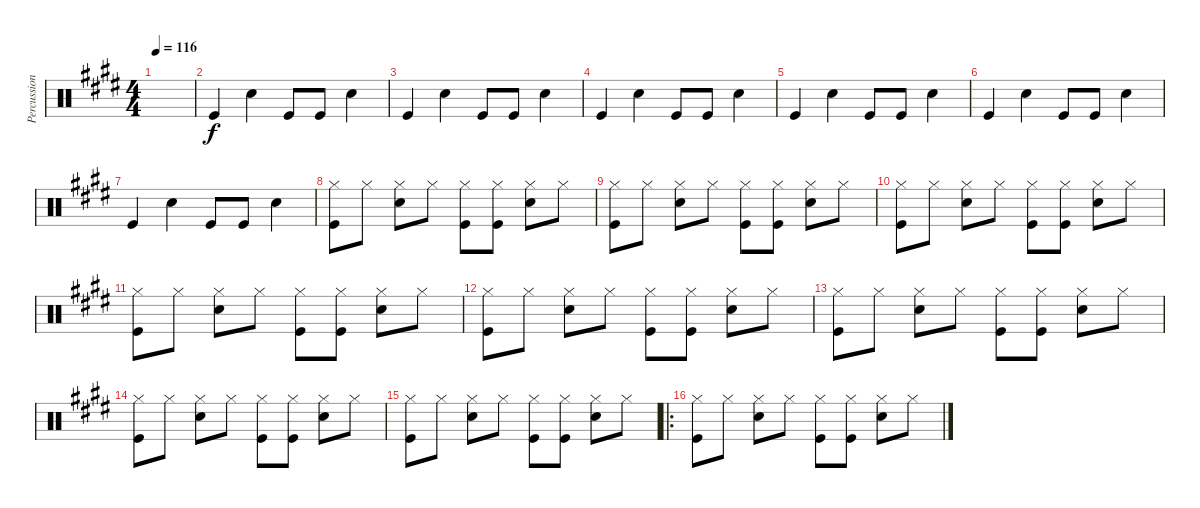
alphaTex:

\track ("Percussion" "Percussion") {instrument percussion}
\staff {score}
\articulation defaults
\ts (4 4)
\tempo 116
\clef neutral
\ks e
|
"Kick (hit)".4 "Snare (hit) 2".4 "Kick (hit)".8 "Kick (hit)".8 "Snare (hit) 2".4 |
"Kick (hit)".4 "Snare (hit) 2".4 "Kick (hit)".8 "Kick (hit)".8 "Snare (hit) 2".4 |
"Kick (hit)".4 "Snare (hit) 2".4 "Kick (hit)".8 "Kick (hit)".8 "Snare (hit) 2".4 |
"Kick (hit)".4 "Snare (hit) 2".4 "Kick (hit)".8 "Kick (hit)".8 "Snare (hit) 2".4 |
"Kick (hit)".4 "Snare (hit) 2".4 "Kick (hit)".8 "Kick (hit)".8 "Snare (hit) 2".4 |
"Kick (hit)".4 "Snare (hit) 2".4 "Kick (hit)".8 "Kick (hit)".8 "Snare (hit) 2".4 |
("Hi-Hat (closed)" "Kick (hit)").8 "Hi-Hat (closed)".8 ("Hi-Hat (closed)" "Snare (hit) 2").8 "Hi-Hat (closed)".8 ("Hi-Hat (closed)" "Kick (hit)").8 ("Hi-Hat (closed)" "Kick (hit)").8 ("Hi-Hat (closed)" "Snare (hit) 2").8 "Hi-Hat (closed)".8 |
("Hi-Hat (closed)" "Kick (hit)").8 "Hi-Hat (closed)".8 ("Hi-Hat (closed)" "Snare (hit) 2").8 "Hi-Hat (closed)".8 ("Hi-Hat (closed)" "Kick (hit)").8 ("Hi-Hat (closed)" "Kick (hit)").8 ("Hi-Hat (closed)" "Snare (hit) 2").8 "Hi-Hat (closed)".8 |
("Hi-Hat (closed)" "Kick (hit)").8 "Hi-Hat (closed)".8 ("Hi-Hat (closed)" "Snare (hit) 2").8 "Hi-Hat (closed)".8 ("Hi-Hat (closed)" "Kick (hit)").8 ("Hi-Hat (closed)" "Kick (hit)").8 ("Hi-Hat (closed)" "Snare (hit) 2").8 "Hi-Hat (closed)".8 |
("Hi-Hat (closed)" "Kick (hit)").8 "Hi-Hat (closed)".8 ("Hi-Hat (closed)" "Snare (hit) 2").8 "Hi-Hat (closed)".8 ("Hi-Hat (closed)" "Kick (hit)").8 ("Hi-Hat (closed)" "Kick (hit)").8 ("Hi-Hat (closed)" "Snare (hit) 2").8 "Hi-Hat (closed)".8 |
("Hi-Hat (closed)" "Kick (hit)").8 "Hi-Hat (closed)".8 ("Hi-Hat (closed)" "Snare (hit) 2").8 "Hi-Hat (closed)".8 ("Hi-Hat (closed)" "Kick (hit)").8 ("Hi-Hat (closed)" "Kick (hit)").8 ("Hi-Hat (closed)" "Snare (hit) 2").8 "Hi-Hat (closed)".8 |
("Hi-Hat (closed)" "Kick (hit)").8 "Hi-Hat (closed)".8 ("Hi-Hat (closed)" "Snare (hit) 2").8 "Hi-Hat (closed)".8 ("Hi-Hat (closed)" "Kick (hit)").8 ("Hi-Hat (closed)" "Kick (hit)").8 ("Hi-Hat (closed)" "Snare (hit) 2").8 "Hi-Hat (closed)".8 |
("Hi-Hat (closed)" "Kick (hit)").8 "Hi-Hat (closed)".8 ("Hi-Hat (closed)" "Snare (hit) 2").8 "Hi-Hat (closed)".8 ("Hi-Hat (closed)" "Kick (hit)").8 ("Hi-Hat (closed)" "Kick (hit)").8 ("Hi-Hat (closed)" "Snare (hit) 2").8 "Hi-Hat (closed)".8 |
("Hi-Hat (closed)" "Kick (hit)").8 "Hi-Hat (closed)".8 ("Hi-Hat (closed)" "Snare (hit) 2").8 "Hi-Hat (closed)".8 ("Hi-Hat (closed)" "Kick (hit)").8 ("Hi-Hat (closed)" "Kick (hit)").8 ("Hi-Hat (closed)" "Snare (hit) 2").8 "Hi-Hat (closed)".8 |
\ro
("Hi-Hat (closed)" "Kick (hit)").8 "Hi-Hat (closed)".8 ("Hi-Hat (closed)" "Snare (hit) 2").8 "Hi-Hat (closed)".8 ("Hi-Hat (closed)" "Kick (hit)").8 ("Hi-Hat (closed)" "Kick (hit)").8 ("Hi-Hat (closed)" "Snare (hit) 2").8 "Hi-Hat (closed)".8
